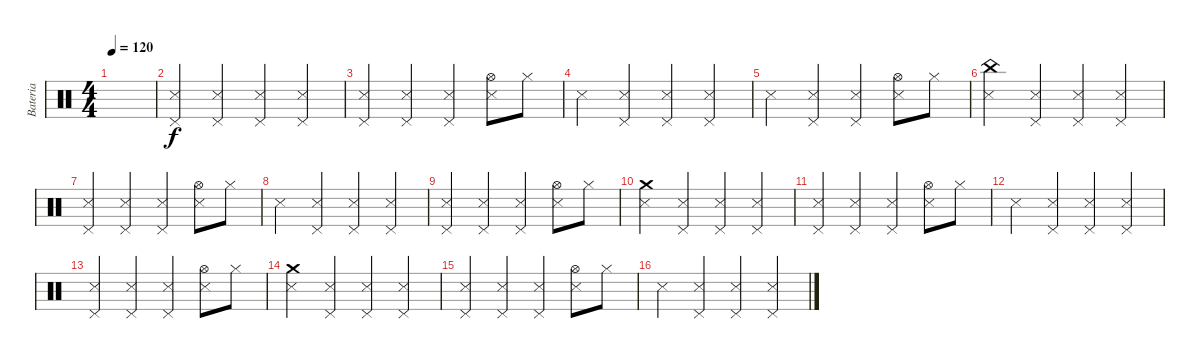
\track ("Bateria" "Bateria") {instrument percussion}
\staff {score}
\articulation defaults
\ts (4 4)
\tempo 120
\clef neutral
\ks c
|
("Snare (side stick) 3" "Pedal Hi-Hat (hit)").4 ("Snare (side stick) 3" "Pedal Hi-Hat (hit)").4 ("Snare (side stick) 3" "Pedal Hi-Hat (hit)").4 ("Snare (side stick) 3" "Pedal Hi-Hat (hit)").4 |
("Snare (side stick) 3" "Pedal Hi-Hat (hit)").4 ("Snare (side stick) 3" "Pedal Hi-Hat (hit)").4 ("Snare (side stick) 3" "Pedal Hi-Hat (hit)").4 ("Snare (side stick) 3" "Hi-Hat (open)").8 "Hi-Hat (closed)".8 |
"Snare (side stick) 3".4 ("Snare (side stick) 3" "Pedal Hi-Hat (hit)").4 ("Snare (side stick) 3" "Pedal Hi-Hat (hit)").4 ("Snare (side stick) 3" "Pedal Hi-Hat (hit)").4 |
"Snare (side stick) 3".4 ("Snare (side stick) 3" "Pedal Hi-Hat (hit)").4 ("Snare (side stick) 3" "Pedal Hi-Hat (hit)").4 ("Snare (side stick) 3" "Hi-Hat (open)").8 "Hi-Hat (closed)".8 |
("Snare (side stick) 3" "China (hit)").4 ("Snare (side stick) 3" "Pedal Hi-Hat (hit)").4 ("Snare (side stick) 3" "Pedal Hi-Hat (hit)").4 ("Snare (side stick) 3" "Pedal Hi-Hat (hit)").4 |
("Snare (side stick) 3" "Pedal Hi-Hat (hit)").4 ("Snare (side stick) 3" "Pedal Hi-Hat (hit)").4 ("Snare (side stick) 3" "Pedal Hi-Hat (hit)").4 ("Snare (side stick) 3" "Hi-Hat (open)").8 "Hi-Hat (closed)".8 |
"Snare (side stick) 3".4 ("Snare (side stick) 3" "Pedal Hi-Hat (hit)").4 ("Snare (side stick) 3" "Pedal Hi-Hat (hit)").4 ("Snare (side stick) 3" "Pedal Hi-Hat (hit)").4 |
("Snare (side stick) 3" "Pedal Hi-Hat (hit)").4 ("Snare (side stick) 3" "Pedal Hi-Hat (hit)").4 ("Snare (side stick) 3" "Pedal Hi-Hat (hit)").4 ("Snare (side stick) 3" "Hi-Hat (open)").8 "Hi-Hat (closed)".8 |
("Snare (side stick) 3" "Crash medium (hit)").4 ("Snare (side stick) 3" "Pedal Hi-Hat (hit)").4 ("Snare (side stick) 3" "Pedal Hi-Hat (hit)").4 ("Snare (side stick) 3" "Pedal Hi-Hat (hit)").4 |
("Snare (side stick) 3" "Pedal Hi-Hat (hit)").4 ("Snare (side stick) 3" "Pedal Hi-Hat (hit)").4 ("Snare (side stick) 3" "Pedal Hi-Hat (hit)").4 ("Snare (side stick) 3" "Hi-Hat (open)").8 "Hi-Hat (closed)".8 |
"Snare (side stick) 3".4 ("Snare (side stick) 3" "Pedal Hi-Hat (hit)").4 ("Snare (side stick) 3" "Pedal Hi-Hat (hit)").4 ("Snare (side stick) 3" "Pedal Hi-Hat (hit)").4 |
("Snare (side stick) 3" "Pedal Hi-Hat (hit)").4 ("Snare (side stick) 3" "Pedal Hi-Hat (hit)").4 ("Snare (side stick) 3" "Pedal Hi-Hat (hit)").4 ("Snare (side stick) 3" "Hi-Hat (open)").8 "Hi-Hat (closed)".8 |
("Snare (side stick) 3" "Crash medium (hit)").4 ("Snare (side stick) 3" "Pedal Hi-Hat (hit)").4 ("Snare (side stick) 3" "Pedal Hi-Hat (hit)").4 ("Snare (side stick) 3" "Pedal Hi-Hat (hit)").4 |
("Snare (side stick) 3" "Pedal Hi-Hat (hit)").4 ("Snare (side stick) 3" "Pedal Hi-Hat (hit)").4 ("Snare (side stick) 3" "Pedal Hi-Hat (hit)").4 ("Snare (side stick) 3" "Hi-Hat (open)").8 "Hi-Hat (closed)".8 |
"Snare (side stick) 3".4 ("Snare (side stick) 3" "Pedal Hi-Hat (hit)").4 ("Snare (side stick) 3" "Pedal Hi-Hat (hit)").4 ("Snare (side stick) 3" "Pedal Hi-Hat (hit)").4
